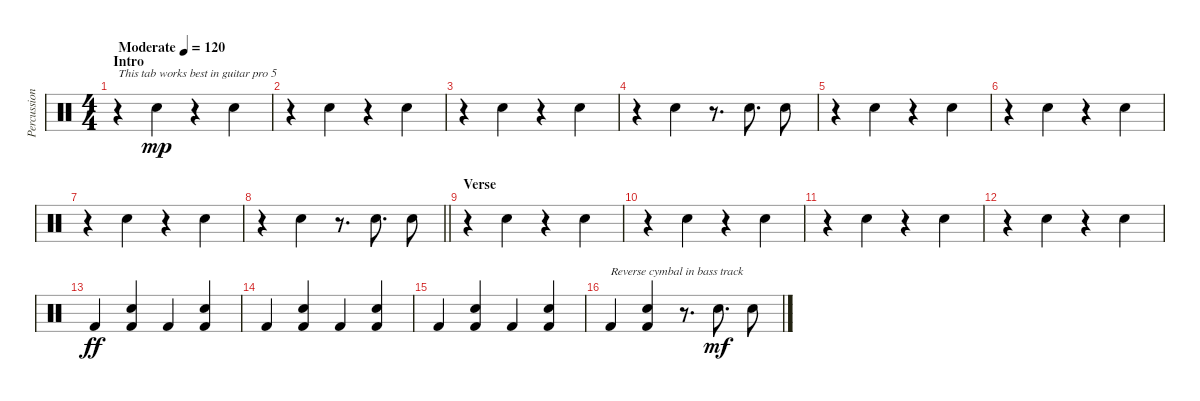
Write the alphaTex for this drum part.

\track ("Percussion" "Percussion") {instrument percussion}
\staff {score}
\articulation defaults
\ts (4 4)
\section ("" "Intro")
\tempo (120 "Moderate")
\clef neutral
\ks c
r.4{txt "This tab works best in guitar pro 5" dy mp} "Hand Clap (hit)".4 r.4 "Hand Clap (hit)".4 |
r.4 "Hand Clap (hit)".4 r.4 "Hand Clap (hit)".4 |
r.4 "Hand Clap (hit)".4 r.4 "Hand Clap (hit)".4 |
r.4 "Hand Clap (hit)".4 r.8{d} "Hand Clap (hit)".8{d} "Hand Clap (hit)".8 |
r.4 "Hand Clap (hit)".4 r.4 "Hand Clap (hit)".4 |
r.4 "Hand Clap (hit)".4 r.4 "Hand Clap (hit)".4 |
r.4 "Hand Clap (hit)".4 r.4 "Hand Clap (hit)".4 |
\barLineRight lightlight
r.4 "Hand Clap (hit)".4 r.8{d} "Hand Clap (hit)".8{d} "Hand Clap (hit)".8 |
\section ("" "Verse")
r.4 "Hand Clap (hit)".4 r.4 "Hand Clap (hit)".4 |
r.4 "Hand Clap (hit)".4 r.4 "Hand Clap (hit)".4 |
r.4 "Hand Clap (hit)".4 r.4 "Hand Clap (hit)".4 |
r.4 "Hand Clap (hit)".4 r.4 "Hand Clap (hit)".4 |
"Kick (hit) 2".4{dy ff} ("Hand Clap (hit)" "Kick (hit) 2").4 "Kick (hit) 2".4 ("Hand Clap (hit)" "Kick (hit) 2").4 |
"Kick (hit) 2".4 ("Hand Clap (hit)" "Kick (hit) 2").4 "Kick (hit) 2".4 ("Hand Clap (hit)" "Kick (hit) 2").4 |
"Kick (hit) 2".4 ("Hand Clap (hit)" "Kick (hit) 2").4 "Kick (hit) 2".4 ("Hand Clap (hit)" "Kick (hit) 2").4 |
"Kick (hit) 2".4{txt "Reverse cymbal in bass track"} ("Hand Clap (hit)" "Kick (hit) 2").4 r.8{d} "Hand Clap (hit)".8{d dy mf} "Hand Clap (hit)".8
